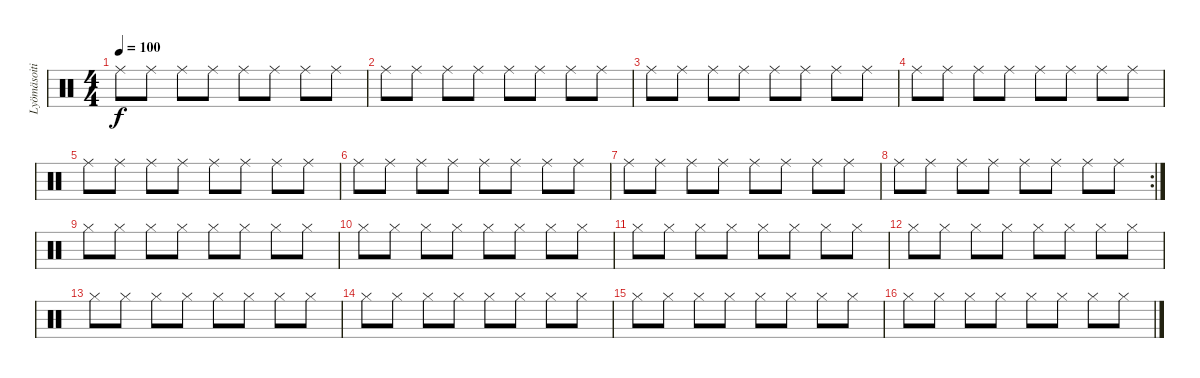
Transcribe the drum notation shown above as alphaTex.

\track ("Lyömäsoitin" "Lyömäsoiti") {instrument percussion}
\staff {score}
\articulation defaults
\ts (4 4)
\tempo 100
\clef neutral
\ks c "Ride (middle)".8{dy f} "Ride (middle)".8 "Ride (middle)".8 "Ride (middle)".8 "Ride (middle)".8 "Ride (middle)".8 "Ride (middle)".8 "Ride (middle)".8
|
"Ride (middle)".8 "Ride (middle)".8 "Ride (middle)".8 "Ride (middle)".8 "Ride (middle)".8 "Ride (middle)".8 "Ride (middle)".8 "Ride (middle)".8 |
"Ride (middle)".8 "Ride (middle)".8 "Ride (middle)".8 "Ride (middle)".8 "Ride (middle)".8 "Ride (middle)".8 "Ride (middle)".8 "Ride (middle)".8 |
"Ride (middle)".8 "Ride (middle)".8 "Ride (middle)".8 "Ride (middle)".8 "Ride (middle)".8 "Ride (middle)".8 "Ride (middle)".8 "Ride (middle)".8 |
"Ride (middle)".8 "Ride (middle)".8 "Ride (middle)".8 "Ride (middle)".8 "Ride (middle)".8 "Ride (middle)".8 "Ride (middle)".8 "Ride (middle)".8 |
"Ride (middle)".8 "Ride (middle)".8 "Ride (middle)".8 "Ride (middle)".8 "Ride (middle)".8 "Ride (middle)".8 "Ride (middle)".8 "Ride (middle)".8 |
"Ride (middle)".8 "Ride (middle)".8 "Ride (middle)".8 "Ride (middle)".8 "Ride (middle)".8 "Ride (middle)".8 "Ride (middle)".8 "Ride (middle)".8 |
\rc 2 "Ride (middle)".8 "Ride (middle)".8 "Ride (middle)".8 "Ride (middle)".8 "Ride (middle)".8 "Ride (middle)".8 "Ride (middle)".8 "Ride (middle)".8
|
"Hi-Hat (closed)".8 "Hi-Hat (closed)".8 "Hi-Hat (closed)".8 "Hi-Hat (closed)".8 "Hi-Hat (closed)".8 "Hi-Hat (closed)".8 "Hi-Hat (closed)".8 "Hi-Hat (closed)".8 |
"Hi-Hat (closed)".8 "Hi-Hat (closed)".8 "Hi-Hat (closed)".8 "Hi-Hat (closed)".8 "Hi-Hat (closed)".8 "Hi-Hat (closed)".8 "Hi-Hat (closed)".8 "Hi-Hat (closed)".8 |
"Hi-Hat (closed)".8 "Hi-Hat (closed)".8 "Hi-Hat (closed)".8 "Hi-Hat (closed)".8 "Hi-Hat (closed)".8 "Hi-Hat (closed)".8 "Hi-Hat (closed)".8 "Hi-Hat (closed)".8 |
"Hi-Hat (closed)".8 "Hi-Hat (closed)".8 "Hi-Hat (closed)".8 "Hi-Hat (closed)".8 "Hi-Hat (closed)".8 "Hi-Hat (closed)".8 "Hi-Hat (closed)".8 "Hi-Hat (closed)".8 |
"Hi-Hat (closed)".8 "Hi-Hat (closed)".8 "Hi-Hat (closed)".8 "Hi-Hat (closed)".8 "Hi-Hat (closed)".8 "Hi-Hat (closed)".8 "Hi-Hat (closed)".8 "Hi-Hat (closed)".8 |
"Hi-Hat (closed)".8 "Hi-Hat (closed)".8 "Hi-Hat (closed)".8 "Hi-Hat (closed)".8 "Hi-Hat (closed)".8 "Hi-Hat (closed)".8 "Hi-Hat (closed)".8 "Hi-Hat (closed)".8 |
"Hi-Hat (closed)".8 "Hi-Hat (closed)".8 "Hi-Hat (closed)".8 "Hi-Hat (closed)".8 "Hi-Hat (closed)".8 "Hi-Hat (closed)".8 "Hi-Hat (closed)".8 "Hi-Hat (closed)".8 |
"Hi-Hat (closed)".8 "Hi-Hat (closed)".8 "Hi-Hat (closed)".8 "Hi-Hat (closed)".8 "Hi-Hat (closed)".8 "Hi-Hat (closed)".8 "Hi-Hat (closed)".8 "Hi-Hat (closed)".8
